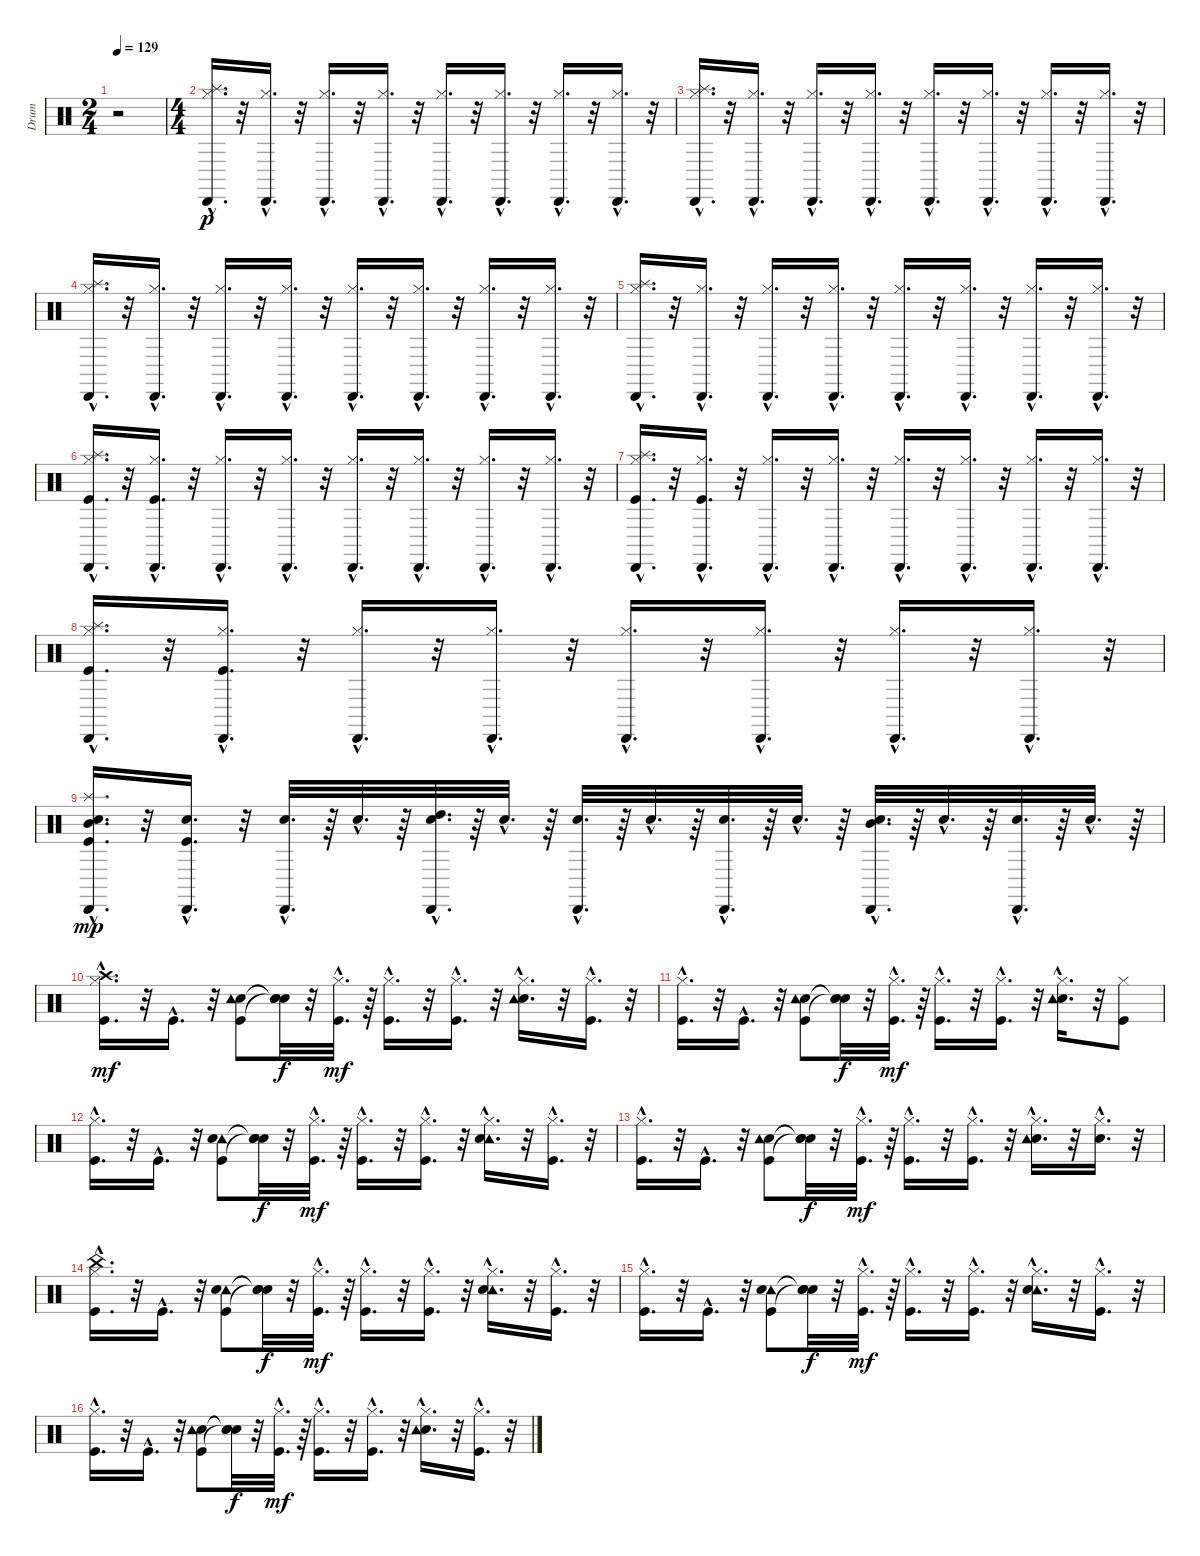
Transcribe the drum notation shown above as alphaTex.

\track ("Drum" "Drum") {instrument percussion}
\staff {score}
\articulation defaults
\ts (2 4)
\tempo 129
\clef neutral
\ks c
r.2{dy p} |
\ts (4 4)
("Cabasa (hit)"{hac} "Splash (hit)"{hac} "Hi-Hat (closed)"{hac}).16{d} r.32 ("Cabasa (hit)"{hac} "Hi-Hat (closed)"{hac}).16{d} r.32 ("Cabasa (hit)"{hac} "Hi-Hat (closed)"{hac}).16{d} r.32 ("Cabasa (hit)"{hac} "Hi-Hat (closed)"{hac}).16{d} r.32 ("Cabasa (hit)"{hac} "Hi-Hat (closed)"{hac}).16{d} r.32 ("Cabasa (hit)"{hac} "Hi-Hat (closed)"{hac}).16{d} r.32 ("Cabasa (hit)"{hac} "Hi-Hat (closed)"{hac}).16{d} r.32 ("Cabasa (hit)"{hac} "Hi-Hat (closed)"{hac}).16{d} r.32 |
("Hi-Hat (closed)"{hac} "Splash (hit)"{hac} "Cabasa (hit)"{hac}).16{d} r.32 ("Hi-Hat (closed)"{hac} "Cabasa (hit)"{hac}).16{d} r.32 ("Hi-Hat (closed)"{hac} "Cabasa (hit)"{hac}).16{d} r.32 ("Hi-Hat (closed)"{hac} "Cabasa (hit)"{hac}).16{d} r.32 ("Hi-Hat (closed)"{hac} "Cabasa (hit)"{hac}).16{d} r.32 ("Hi-Hat (closed)"{hac} "Cabasa (hit)"{hac}).16{d} r.32 ("Hi-Hat (closed)"{hac} "Cabasa (hit)"{hac}).16{d} r.32 ("Hi-Hat (closed)"{hac} "Cabasa (hit)"{hac}).16{d} r.32 |
("Hi-Hat (closed)"{hac} "Splash (hit)"{hac} "Cabasa (hit)"{hac}).16{d} r.32 ("Hi-Hat (closed)"{hac} "Cabasa (hit)"{hac}).16{d} r.32 ("Hi-Hat (closed)"{hac} "Cabasa (hit)"{hac}).16{d} r.32 ("Hi-Hat (closed)"{hac} "Cabasa (hit)"{hac}).16{d} r.32 ("Hi-Hat (closed)"{hac} "Cabasa (hit)"{hac}).16{d} r.32 ("Hi-Hat (closed)"{hac} "Cabasa (hit)"{hac}).16{d} r.32 ("Hi-Hat (closed)"{hac} "Cabasa (hit)"{hac}).16{d} r.32 ("Hi-Hat (closed)"{hac} "Cabasa (hit)"{hac}).16{d} r.32 |
("Hi-Hat (closed)"{hac} "Splash (hit)"{hac} "Cabasa (hit)"{hac}).16{d} r.32 ("Hi-Hat (closed)"{hac} "Cabasa (hit)"{hac}).16{d} r.32 ("Hi-Hat (closed)"{hac} "Cabasa (hit)"{hac}).16{d} r.32 ("Hi-Hat (closed)"{hac} "Cabasa (hit)"{hac}).16{d} r.32 ("Hi-Hat (closed)"{hac} "Cabasa (hit)"{hac}).16{d} r.32 ("Hi-Hat (closed)"{hac} "Cabasa (hit)"{hac}).16{d} r.32 ("Hi-Hat (closed)"{hac} "Cabasa (hit)"{hac}).16{d} r.32 ("Hi-Hat (closed)"{hac} "Cabasa (hit)"{hac}).16{d} r.32 |
("Cabasa (hit)"{hac} "Kick (hit)"{hac} "Hi-Hat (closed)"{hac} "Splash (hit)"{hac}).16{d} r.32 ("Cabasa (hit)"{hac} "Kick (hit)"{hac} "Hi-Hat (closed)"{hac}).16{d} r.32 ("Cabasa (hit)"{hac} "Hi-Hat (closed)"{hac}).16{d} r.32 ("Cabasa (hit)"{hac} "Hi-Hat (closed)"{hac}).16{d} r.32 ("Cabasa (hit)"{hac} "Hi-Hat (closed)"{hac}).16{d} r.32 ("Cabasa (hit)"{hac} "Hi-Hat (closed)"{hac}).16{d} r.32 ("Cabasa (hit)"{hac} "Hi-Hat (closed)"{hac}).16{d} r.32 ("Cabasa (hit)"{hac} "Hi-Hat (closed)"{hac}).16{d} r.32 |
("Splash (hit)"{hac} "Hi-Hat (closed)"{hac} "Kick (hit)"{hac} "Cabasa (hit)"{hac}).16{d} r.32 ("Hi-Hat (closed)"{hac} "Kick (hit)"{hac} "Cabasa (hit)"{hac}).16{d} r.32 ("Hi-Hat (closed)"{hac} "Cabasa (hit)"{hac}).16{d} r.32 ("Hi-Hat (closed)"{hac} "Cabasa (hit)"{hac}).16{d} r.32 ("Hi-Hat (closed)"{hac} "Cabasa (hit)"{hac}).16{d} r.32 ("Hi-Hat (closed)"{hac} "Cabasa (hit)"{hac}).16{d} r.32 ("Hi-Hat (closed)"{hac} "Cabasa (hit)"{hac}).16{d} r.32 ("Hi-Hat (closed)"{hac} "Cabasa (hit)"{hac}).16{d} r.32 |
("Splash (hit)"{hac} "Hi-Hat (closed)"{hac} "Kick (hit)"{hac} "Cabasa (hit)"{hac}).16{d} r.32 ("Hi-Hat (closed)"{hac} "Kick (hit)"{hac} "Cabasa (hit)"{hac}).16{d} r.32 ("Hi-Hat (closed)"{hac} "Cabasa (hit)"{hac}).16{d} r.32 ("Hi-Hat (closed)"{hac} "Cabasa (hit)"{hac}).16{d} r.32 ("Hi-Hat (closed)"{hac} "Cabasa (hit)"{hac}).16{d} r.32 ("Hi-Hat (closed)"{hac} "Cabasa (hit)"{hac}).16{d} r.32 ("Hi-Hat (closed)"{hac} "Cabasa (hit)"{hac}).16{d} r.32 ("Hi-Hat (closed)"{hac} "Cabasa (hit)"{hac}).16{d} r.32 |
("Splash (hit)"{hac} "Kick (hit)"{hac} "Cabasa (hit)"{hac} "Mid Tom (hit)"{hac} "Snare (hit) 2"{hac}).16{d dy mp} r.32 ("Kick (hit)"{hac} "Cabasa (hit)"{hac} "Snare (hit) 2"{hac}).16{d} r.32 ("Cabasa (hit)"{hac} "Snare (hit) 2"{hac}).32{d} r.64 "Snare (hit) 2"{hac}.32{d} r.64 ("Cabasa (hit)"{hac} "High Tom (hit)"{hac} "Snare (hit) 2"{hac}).32{d} r.64 "Snare (hit) 2"{hac}.32{d} r.64 ("Cabasa (hit)"{hac} "Snare (hit) 2"{hac}).32{d} r.64 "Snare (hit) 2"{hac}.32{d} r.64 ("Cabasa (hit)"{hac} "Snare (hit) 2"{hac}).32{d} r.64 "Snare (hit) 2"{hac}.32{d} r.64 ("Cabasa (hit)"{hac} "Mid Tom (hit)"{hac} "Snare (hit) 2"{hac}).32{d} r.64 "Snare (hit) 2"{hac}.32{d} r.64 ("Cabasa (hit)"{hac} "Snare (hit) 2"{hac}).32{d} r.64 "Snare (hit) 2"{hac}.32{d} r.64 |
("Crash high (hit)"{hac} "Kick (hit)"{hac} "Hi-Hat (closed)"{hac}).16{d dy mf} r.32 "Kick (hit)"{hac}.16{d} r.32 ("Snare (hit) 2" "Kick (hit)" "Tambourine (hit)").8 ("Snare (hit)"{t} "Snare (hit)"{t} "Snare (hit)"{t}).32{dy f} r.32 ("Hi-Hat (closed)"{hac} "Kick (hit)"{hac}).32{d dy mf} r.64 ("Hi-Hat (closed)"{hac} "Kick (hit)"{hac}).16{d} r.32 ("Hi-Hat (closed)"{hac} "Kick (hit)"{hac}).16{d} r.32 ("Hi-Hat (closed)"{hac} "Snare (hit) 2"{hac} "Tambourine (hit)"{hac}).16{d} r.32 ("Hi-Hat (closed)"{hac} "Kick (hit)"{hac}).16{d} r.32 |
("Kick (hit)"{hac} "Hi-Hat (closed)"{hac}).16{d} r.32 "Kick (hit)"{hac}.16{d} r.32 ("Snare (hit) 2" "Kick (hit)" "Tambourine (hit)").8 ("Snare (hit)"{t} "Snare (hit)"{t} "Snare (hit)"{t}).32{dy f} r.32 ("Hi-Hat (closed)"{hac} "Kick (hit)"{hac}).32{d dy mf} r.64 ("Hi-Hat (closed)"{hac} "Kick (hit)"{hac}).16{d} r.32 ("Hi-Hat (closed)"{hac} "Kick (hit)"{hac}).16{d} r.32 ("Hi-Hat (closed)"{hac} "Snare (hit) 2"{hac} "Tambourine (hit)"{hac}).16{d} r.32 ("Hi-Hat (closed)" "Kick (hit)").8 |
("Hi-Hat (closed)"{hac} "Kick (hit)"{hac}).16{d} r.32 "Kick (hit)"{hac}.16{d} r.32 ("Tambourine (hit)" "Kick (hit)" "Snare (hit) 2").8 ("Snare (hit)"{t} "Snare (hit)"{t} "Snare (hit)"{t}).32{dy f} r.32 ("Kick (hit)"{hac} "Hi-Hat (closed)"{hac}).32{d dy mf} r.64 ("Kick (hit)"{hac} "Hi-Hat (closed)"{hac}).16{d} r.32 ("Kick (hit)"{hac} "Hi-Hat (closed)"{hac}).16{d} r.32 ("Tambourine (hit)"{hac} "Snare (hit) 2"{hac} "Hi-Hat (closed)"{hac}).16{d} r.32 ("Kick (hit)"{hac} "Hi-Hat (closed)"{hac}).16{d} r.32 |
("Kick (hit)"{hac} "Hi-Hat (closed)"{hac}).16{d} r.32 "Kick (hit)"{hac}.16{d} r.32 ("Snare (hit) 2" "Kick (hit)" "Tambourine (hit)").8 ("Snare (hit)"{t} "Snare (hit)"{t} "Snare (hit)"{t}).32{dy f} r.32 ("Hi-Hat (closed)"{hac} "Kick (hit)"{hac}).32{d dy mf} r.64 ("Hi-Hat (closed)"{hac} "Kick (hit)"{hac}).16{d} r.32 ("Hi-Hat (closed)"{hac} "Kick (hit)"{hac}).16{d} r.32 ("Hi-Hat (closed)"{hac} "Snare (hit) 2"{hac} "Tambourine (hit)"{hac}).16{d} r.32 ("Snare (hit) 2"{hac} "Hi-Hat (closed)"{hac}).16{d} r.32 |
("China (hit)"{hac} "Hi-Hat (closed)"{hac} "Kick (hit)"{hac}).16{d} r.32 "Kick (hit)"{hac}.16{d} r.32 ("Tambourine (hit)" "Kick (hit)" "Snare (hit) 2").8 ("Snare (hit)"{t} "Snare (hit)"{t} "Snare (hit)"{t}).32{dy f} r.32 ("Kick (hit)"{hac} "Hi-Hat (closed)"{hac}).32{d dy mf} r.64 ("Kick (hit)"{hac} "Hi-Hat (closed)"{hac}).16{d} r.32 ("Kick (hit)"{hac} "Hi-Hat (closed)"{hac}).16{d} r.32 ("Tambourine (hit)"{hac} "Snare (hit) 2"{hac} "Hi-Hat (closed)"{hac}).16{d} r.32 ("Kick (hit)"{hac} "Hi-Hat (closed)"{hac}).16{d} r.32 |
("Hi-Hat (closed)"{hac} "Kick (hit)"{hac}).16{d} r.32 "Kick (hit)"{hac}.16{d} r.32 ("Tambourine (hit)" "Kick (hit)" "Snare (hit) 2").8 ("Snare (hit)"{t} "Snare (hit)"{t} "Snare (hit)"{t}).32{dy f} r.32 ("Kick (hit)"{hac} "Hi-Hat (closed)"{hac}).32{d dy mf} r.64 ("Kick (hit)"{hac} "Hi-Hat (closed)"{hac}).16{d} r.32 ("Kick (hit)"{hac} "Hi-Hat (closed)"{hac}).16{d} r.32 ("Tambourine (hit)"{hac} "Snare (hit) 2"{hac} "Hi-Hat (closed)"{hac}).16{d} r.32 ("Kick (hit)"{hac} "Hi-Hat (closed)"{hac}).16{d} r.32 |
("Kick (hit)"{hac} "Hi-Hat (closed)"{hac}).16{d} r.32 "Kick (hit)"{hac}.16{d} r.32 ("Snare (hit) 2" "Kick (hit)" "Tambourine (hit)").8 ("Snare (hit)"{t} "Snare (hit)"{t} "Snare (hit)"{t}).32{dy f} r.32 ("Hi-Hat (closed)"{hac} "Kick (hit)"{hac}).32{d dy mf} r.64 ("Hi-Hat (closed)"{hac} "Kick (hit)"{hac}).16{d} r.32 ("Hi-Hat (closed)"{hac} "Kick (hit)"{hac}).16{d} r.32 ("Hi-Hat (closed)"{hac} "Snare (hit) 2"{hac} "Tambourine (hit)"{hac}).16{d} r.32 ("Hi-Hat (closed)"{hac} "Kick (hit)"{hac}).16{d} r.32
